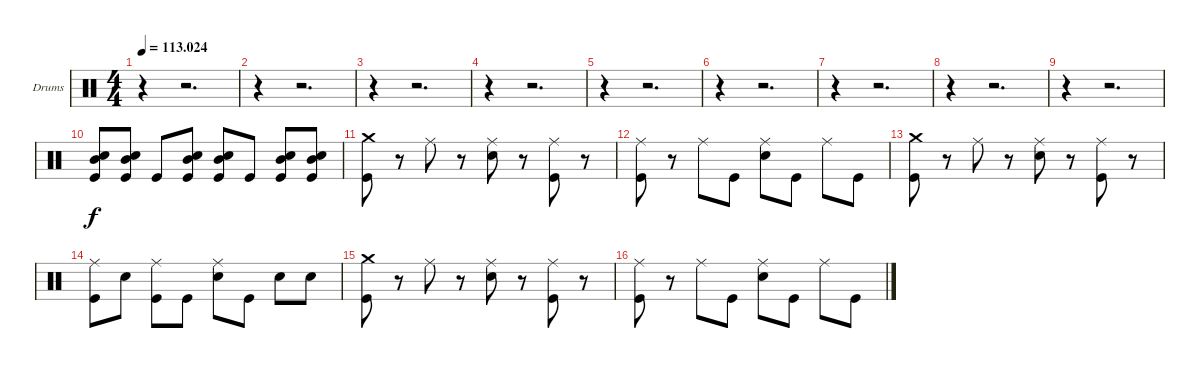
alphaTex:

\bracketExtendMode groupsimilarinstruments
\firstSystemTrackNameOrientation horizontal
\otherSystemsTrackNameOrientation horizontal
\track ("Ударные (Кривенков Д)" "Drums") {instrument percussion}
\staff {score}
\articulation defaults
\ts (4 4)
\tempo
113.024
\accidentals auto
\clef neutral
\ottava regular
\simile none
\ks c
r.4{dy f} r.2{d} |
r.4 r.2{d} |
r.4 r.2{d} |
r.4 r.2{d} |
r.4 r.2{d} |
r.4 r.2{d} |
r.4 r.2{d} |
r.4 r.2{d} |
r.4 r.2{d} |
("Mid Tom (hit)" "Snare (hit) 2" "Kick (hit)").8 ("Mid Tom (hit)" "Snare (hit) 2" "Kick (hit)").8 "Kick (hit)".8 ("Mid Tom (hit)" "Snare (hit) 2" "Kick (hit)").8 ("Mid Tom (hit)" "Snare (hit) 2" "Kick (hit)").8 "Kick (hit)".8 ("Mid Tom (hit)" "Snare (hit) 2" "Kick (hit)").8 ("Mid Tom (hit)" "Snare (hit) 2" "Kick (hit)").8 |
("Crash medium (hit)" "Kick (hit)").8 r.8 "Ride (middle)".8 r.8 ("Ride (middle)" "Snare (hit) 2").8 r.8 ("Ride (middle)" "Kick (hit)").8 r.8 |
("Ride (middle)" "Kick (hit)").8 r.8 "Ride (middle)".8 "Kick (hit)".8 ("Ride (middle)" "Snare (hit) 2").8 "Kick (hit)".8 "Ride (middle)".8 "Kick (hit)".8 |
("Crash medium (hit)" "Kick (hit)").8 r.8 "Ride (middle)".8 r.8 ("Ride (middle)" "Snare (hit) 2").8 r.8 ("Ride (middle)" "Kick (hit)").8 r.8 |
("Ride (middle)" "Kick (hit)").8 "Snare (hit) 2".8 ("Ride (middle)" "Kick (hit)").8 "Kick (hit)".8 ("Ride (middle)" "Snare (hit) 2").8 "Kick (hit)".8 "Snare (hit) 2".8 "Snare (hit) 2".8 |
("Crash medium (hit)" "Kick (hit)").8 r.8 "Ride (middle)".8 r.8 ("Ride (middle)" "Snare (hit) 2").8 r.8 ("Ride (middle)" "Kick (hit)").8 r.8 |
("Ride (middle)" "Kick (hit)").8 r.8 "Ride (middle)".8 "Kick (hit)".8 ("Ride (middle)" "Snare (hit) 2").8 "Kick (hit)".8 "Ride (middle)".8 "Kick (hit)".8
